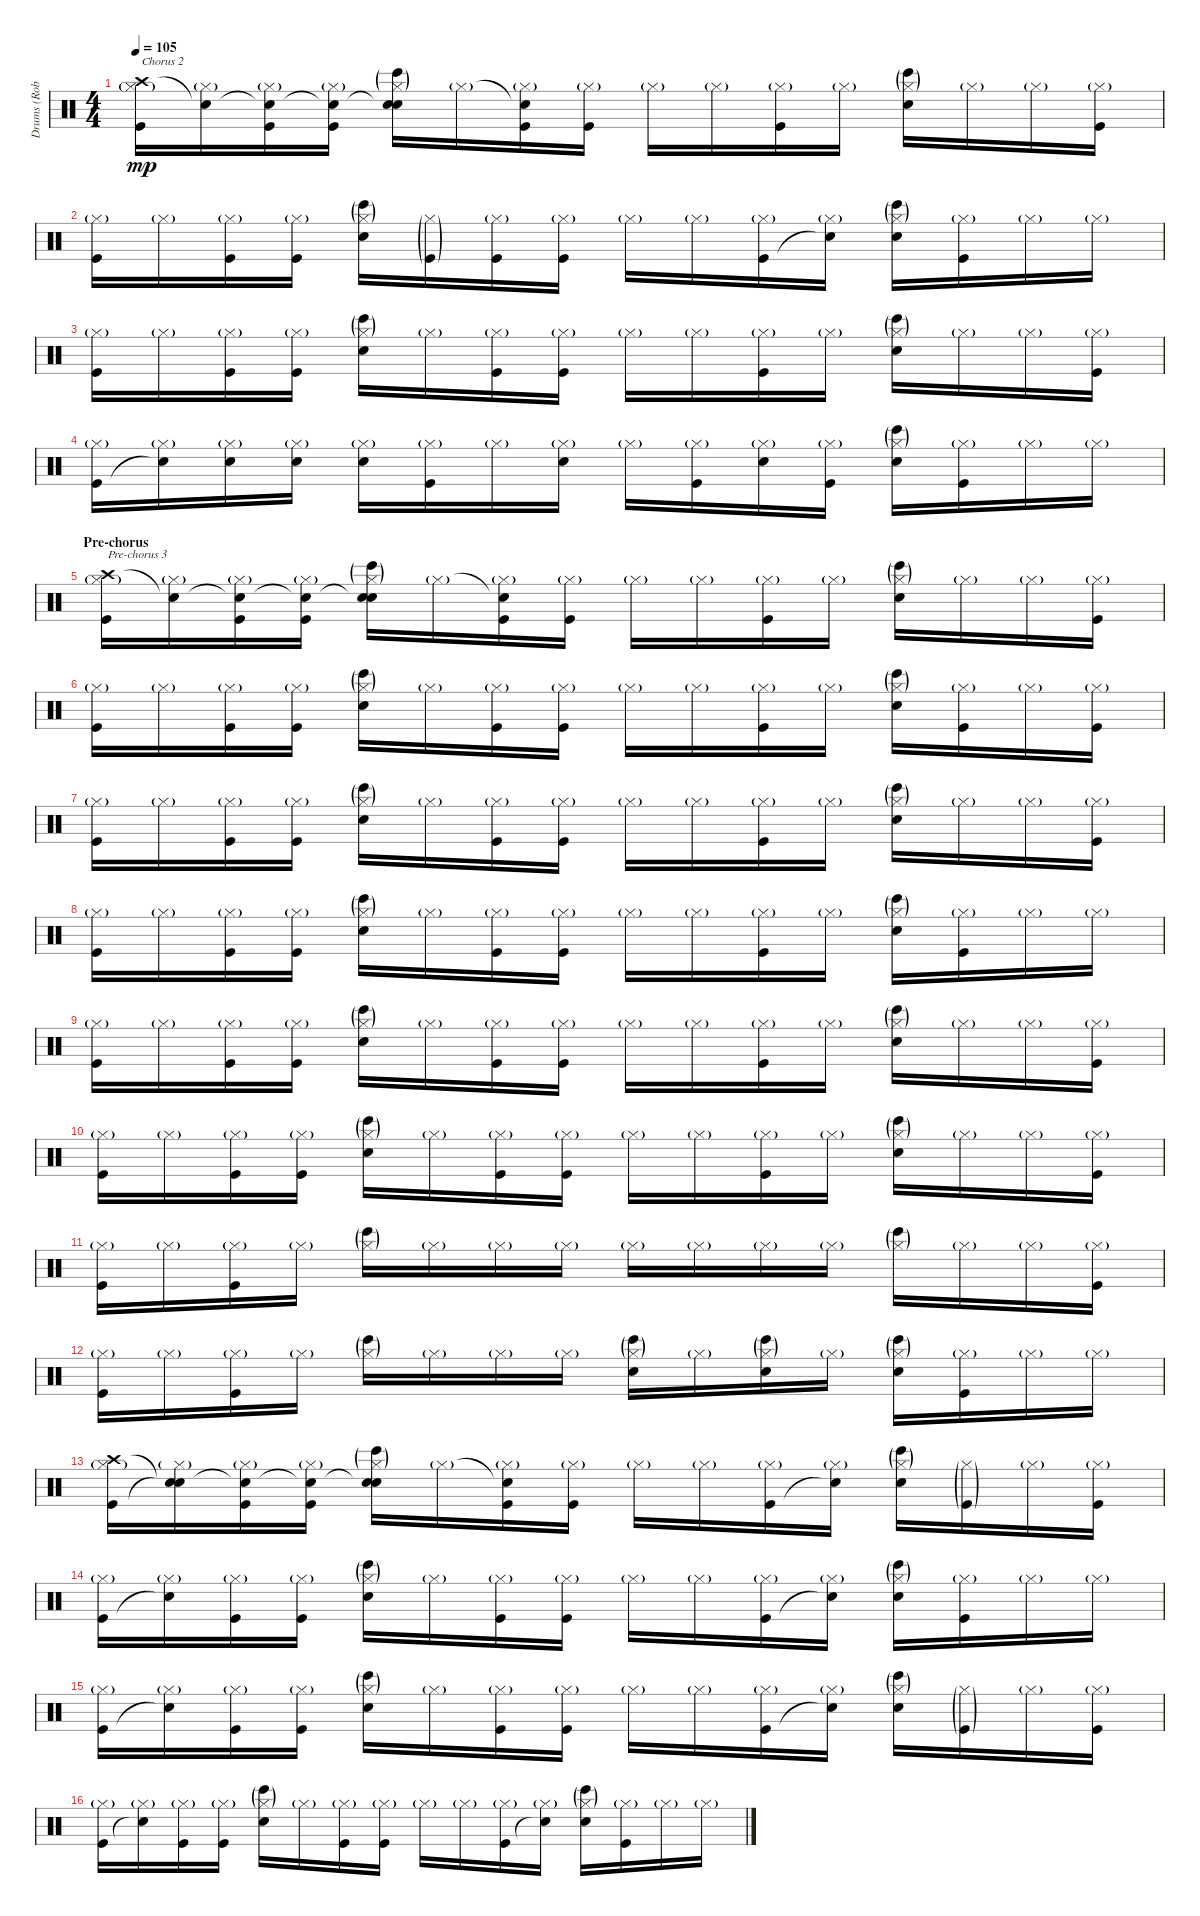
\track ("Drums (Rob Bourdon)" "Drums (Rob") {instrument percussion}
\staff {score}
\articulation defaults
\ts (4 4)
\tempo 105
\clef neutral
\ks c
("Crash high (hit)" "Hi-Hat (closed)"{g} "Kick (hit)").16{txt "Chorus 2" dy mp} ("Snare (hit)"{t} "Hi-Hat (closed)"{g}).16 ("Snare (hit)"{t} "Hi-Hat (closed)"{g} "Kick (hit)").16 ("Snare (hit)"{t} "Hi-Hat (closed)"{g} "Kick (hit)").16 ("Snare (hit)"{t} "Hi-Hat (closed)"{g} "Bongo High (hit)"{g} "Electric Snare (hit)").16 "Hi-Hat (closed)"{g}.16 ("Snare (hit)"{t} "Hi-Hat (closed)"{g} "Kick (hit)").16 ("Hi-Hat (closed)"{g} "Kick (hit)").16 "Hi-Hat (closed)"{g}.16 "Hi-Hat (closed)"{g}.16 ("Hi-Hat (closed)"{g} "Kick (hit)").16 "Hi-Hat (closed)"{g}.16 ("Hi-Hat (closed)"{g} "Bongo High (hit)"{g} "Electric Snare (hit)").16 "Hi-Hat (closed)"{g}.16 "Hi-Hat (closed)"{g}.16 ("Hi-Hat (closed)"{g} "Kick (hit)").16 |
("Hi-Hat (closed)"{g} "Kick (hit)").16 "Hi-Hat (closed)"{g}.16 ("Hi-Hat (closed)"{g} "Kick (hit)").16 ("Hi-Hat (closed)"{g} "Kick (hit)").16 ("Hi-Hat (closed)"{g} "Bongo High (hit)"{g} "Electric Snare (hit)").16 ("Hi-Hat (closed)"{g} "Kick (hit)"{g}).16 ("Hi-Hat (closed)"{g} "Kick (hit)").16 ("Hi-Hat (closed)"{g} "Kick (hit)").16 "Hi-Hat (closed)"{g}.16 "Hi-Hat (closed)"{g}.16 ("Hi-Hat (closed)"{g} "Kick (hit)").16 ("Hi-Hat (closed)"{g} "Snare (hit)"{t}).16 ("Hi-Hat (closed)"{g} "Bongo High (hit)"{g} "Electric Snare (hit)").16 ("Hi-Hat (closed)"{g} "Kick (hit)").16 "Hi-Hat (closed)"{g}.16 "Hi-Hat (closed)"{g}.16 |
("Hi-Hat (closed)"{g} "Kick (hit)").16 "Hi-Hat (closed)"{g}.16 ("Hi-Hat (closed)"{g} "Kick (hit)").16 ("Hi-Hat (closed)"{g} "Kick (hit)").16 ("Hi-Hat (closed)"{g} "Bongo High (hit)"{g} "Electric Snare (hit)").16 "Hi-Hat (closed)"{g}.16 ("Hi-Hat (closed)"{g} "Kick (hit)").16 ("Hi-Hat (closed)"{g} "Kick (hit)").16 "Hi-Hat (closed)"{g}.16 "Hi-Hat (closed)"{g}.16 ("Hi-Hat (closed)"{g} "Kick (hit)").16 "Hi-Hat (closed)"{g}.16 ("Hi-Hat (closed)"{g} "Bongo High (hit)"{g} "Electric Snare (hit)").16 "Hi-Hat (closed)"{g}.16 "Hi-Hat (closed)"{g}.16 ("Hi-Hat (closed)"{g} "Kick (hit)").16 |
("Hi-Hat (closed)"{g} "Kick (hit)").16 ("Hi-Hat (closed)"{g} "Snare (hit)"{t}).16 ("Hi-Hat (closed)"{g} "Electric Snare (hit)").16 ("Hi-Hat (closed)"{g} "Electric Snare (hit)").16 ("Hi-Hat (closed)"{g} "Electric Snare (hit)").16 ("Hi-Hat (closed)"{g} "Kick (hit)").16 "Hi-Hat (closed)"{g}.16 ("Hi-Hat (closed)"{g} "Electric Snare (hit)").16 "Hi-Hat (closed)"{g}.16 ("Hi-Hat (closed)"{g} "Kick (hit)").16 ("Hi-Hat (closed)"{g} "Electric Snare (hit)").16 ("Hi-Hat (closed)"{g} "Kick (hit)").16 ("Hi-Hat (closed)"{g} "Bongo High (hit)"{g} "Electric Snare (hit)").16 ("Hi-Hat (closed)"{g} "Kick (hit)").16 "Hi-Hat (closed)"{g}.16 "Hi-Hat (closed)"{g}.16 |
\section ("" "Pre-chorus")
("Crash high (hit)" "Hi-Hat (closed)"{g} "Kick (hit)").16{txt "Pre-chorus 3"} ("Snare (hit)"{t} "Hi-Hat (closed)"{g}).16 ("Snare (hit)"{t} "Hi-Hat (closed)"{g} "Kick (hit)").16 ("Snare (hit)"{t} "Hi-Hat (closed)"{g} "Kick (hit)").16 ("Snare (hit)"{t} "Hi-Hat (closed)"{g} "Bongo High (hit)"{g} "Electric Snare (hit)").16 "Hi-Hat (closed)"{g}.16 ("Snare (hit)"{t} "Hi-Hat (closed)"{g} "Kick (hit)").16 ("Hi-Hat (closed)"{g} "Kick (hit)").16 "Hi-Hat (closed)"{g}.16 "Hi-Hat (closed)"{g}.16 ("Hi-Hat (closed)"{g} "Kick (hit)").16 "Hi-Hat (closed)"{g}.16 ("Hi-Hat (closed)"{g} "Bongo High (hit)"{g} "Electric Snare (hit)").16 "Hi-Hat (closed)"{g}.16 "Hi-Hat (closed)"{g}.16 ("Hi-Hat (closed)"{g} "Kick (hit)").16 |
("Hi-Hat (closed)"{g} "Kick (hit)").16 "Hi-Hat (closed)"{g}.16 ("Hi-Hat (closed)"{g} "Kick (hit)").16 ("Hi-Hat (closed)"{g} "Kick (hit)").16 ("Hi-Hat (closed)"{g} "Bongo High (hit)"{g} "Electric Snare (hit)").16 "Hi-Hat (closed)"{g}.16 ("Hi-Hat (closed)"{g} "Kick (hit)").16 ("Hi-Hat (closed)"{g} "Kick (hit)").16 "Hi-Hat (closed)"{g}.16 "Hi-Hat (closed)"{g}.16 ("Hi-Hat (closed)"{g} "Kick (hit)").16 "Hi-Hat (closed)"{g}.16 ("Hi-Hat (closed)"{g} "Bongo High (hit)"{g} "Electric Snare (hit)").16 ("Hi-Hat (closed)"{g} "Kick (hit)").16 "Hi-Hat (closed)"{g}.16 ("Hi-Hat (closed)"{g} "Kick (hit)").16 |
("Hi-Hat (closed)"{g} "Kick (hit)").16 "Hi-Hat (closed)"{g}.16 ("Hi-Hat (closed)"{g} "Kick (hit)").16 ("Hi-Hat (closed)"{g} "Kick (hit)").16 ("Hi-Hat (closed)"{g} "Bongo High (hit)"{g} "Electric Snare (hit)").16 "Hi-Hat (closed)"{g}.16 ("Hi-Hat (closed)"{g} "Kick (hit)").16 ("Hi-Hat (closed)"{g} "Kick (hit)").16 "Hi-Hat (closed)"{g}.16 "Hi-Hat (closed)"{g}.16 ("Hi-Hat (closed)"{g} "Kick (hit)").16 "Hi-Hat (closed)"{g}.16 ("Hi-Hat (closed)"{g} "Bongo High (hit)"{g} "Electric Snare (hit)").16 "Hi-Hat (closed)"{g}.16 "Hi-Hat (closed)"{g}.16 ("Hi-Hat (closed)"{g} "Kick (hit)").16 |
("Hi-Hat (closed)"{g} "Kick (hit)").16 "Hi-Hat (closed)"{g}.16 ("Hi-Hat (closed)"{g} "Kick (hit)").16 ("Hi-Hat (closed)"{g} "Kick (hit)").16 ("Hi-Hat (closed)"{g} "Bongo High (hit)"{g} "Electric Snare (hit)").16 "Hi-Hat (closed)"{g}.16 ("Hi-Hat (closed)"{g} "Kick (hit)").16 ("Hi-Hat (closed)"{g} "Kick (hit)").16 "Hi-Hat (closed)"{g}.16 "Hi-Hat (closed)"{g}.16 ("Hi-Hat (closed)"{g} "Kick (hit)").16 "Hi-Hat (closed)"{g}.16 ("Hi-Hat (closed)"{g} "Bongo High (hit)"{g} "Electric Snare (hit)").16 ("Hi-Hat (closed)"{g} "Kick (hit)").16 "Hi-Hat (closed)"{g}.16 "Hi-Hat (closed)"{g}.16 |
("Hi-Hat (closed)"{g} "Kick (hit)").16 "Hi-Hat (closed)"{g}.16 ("Hi-Hat (closed)"{g} "Kick (hit)").16 ("Hi-Hat (closed)"{g} "Kick (hit)").16 ("Hi-Hat (closed)"{g} "Bongo High (hit)"{g} "Electric Snare (hit)").16 "Hi-Hat (closed)"{g}.16 ("Hi-Hat (closed)"{g} "Kick (hit)").16 ("Hi-Hat (closed)"{g} "Kick (hit)").16 "Hi-Hat (closed)"{g}.16 "Hi-Hat (closed)"{g}.16 ("Hi-Hat (closed)"{g} "Kick (hit)").16 "Hi-Hat (closed)"{g}.16 ("Hi-Hat (closed)"{g} "Bongo High (hit)"{g} "Electric Snare (hit)").16 "Hi-Hat (closed)"{g}.16 "Hi-Hat (closed)"{g}.16 ("Hi-Hat (closed)"{g} "Kick (hit)").16 |
("Hi-Hat (closed)"{g} "Kick (hit)").16 "Hi-Hat (closed)"{g}.16 ("Hi-Hat (closed)"{g} "Kick (hit)").16 ("Hi-Hat (closed)"{g} "Kick (hit)").16 ("Hi-Hat (closed)"{g} "Bongo High (hit)"{g} "Electric Snare (hit)").16 "Hi-Hat (closed)"{g}.16 ("Hi-Hat (closed)"{g} "Kick (hit)").16 ("Hi-Hat (closed)"{g} "Kick (hit)").16 "Hi-Hat (closed)"{g}.16 "Hi-Hat (closed)"{g}.16 ("Hi-Hat (closed)"{g} "Kick (hit)").16 "Hi-Hat (closed)"{g}.16 ("Hi-Hat (closed)"{g} "Bongo High (hit)"{g} "Electric Snare (hit)").16 "Hi-Hat (closed)"{g}.16 "Hi-Hat (closed)"{g}.16 ("Hi-Hat (closed)"{g} "Kick (hit)").16 |
("Hi-Hat (closed)"{g} "Kick (hit)").16 "Hi-Hat (closed)"{g}.16 ("Hi-Hat (closed)"{g} "Kick (hit)").16 "Hi-Hat (closed)"{g}.16 ("Hi-Hat (closed)"{g} "Bongo High (hit)"{g}).16 "Hi-Hat (closed)"{g}.16 "Hi-Hat (closed)"{g}.16 "Hi-Hat (closed)"{g}.16 "Hi-Hat (closed)"{g}.16 "Hi-Hat (closed)"{g}.16 "Hi-Hat (closed)"{g}.16 "Hi-Hat (closed)"{g}.16 ("Hi-Hat (closed)"{g} "Bongo High (hit)"{g}).16 "Hi-Hat (closed)"{g}.16 "Hi-Hat (closed)"{g}.16 ("Hi-Hat (closed)"{g} "Kick (hit)").16 |
("Hi-Hat (closed)"{g} "Kick (hit)").16 "Hi-Hat (closed)"{g}.16 ("Hi-Hat (closed)"{g} "Kick (hit)").16 "Hi-Hat (closed)"{g}.16 ("Hi-Hat (closed)"{g} "Bongo High (hit)"{g}).16 "Hi-Hat (closed)"{g}.16 "Hi-Hat (closed)"{g}.16 "Hi-Hat (closed)"{g}.16 ("Hi-Hat (closed)"{g} "Bongo High (hit)"{g} "Electric Snare (hit)").16 "Hi-Hat (closed)"{g}.16 ("Hi-Hat (closed)"{g} "Bongo High (hit)"{g} "Electric Snare (hit)").16 "Hi-Hat (closed)"{g}.16 ("Hi-Hat (closed)"{g} "Bongo High (hit)"{g} "Electric Snare (hit)").16 ("Hi-Hat (closed)"{g} "Kick (hit)").16 "Hi-Hat (closed)"{g}.16 "Hi-Hat (closed)"{g}.16 |
("Crash high (hit)" "Hi-Hat (closed)"{g} "Kick (hit)").16 ("Snare (hit)"{t} "Hi-Hat (closed)"{g} "Snare (hit)"{t}).16 ("Snare (hit)"{t} "Hi-Hat (closed)"{g} "Kick (hit)").16 ("Snare (hit)"{t} "Hi-Hat (closed)"{g} "Kick (hit)").16 ("Snare (hit)"{t} "Hi-Hat (closed)"{g} "Bongo High (hit)"{g} "Electric Snare (hit)").16 "Hi-Hat (closed)"{g}.16 ("Snare (hit)"{t} "Hi-Hat (closed)"{g} "Kick (hit)").16 ("Hi-Hat (closed)"{g} "Kick (hit)").16 "Hi-Hat (closed)"{g}.16 "Hi-Hat (closed)"{g}.16 ("Hi-Hat (closed)"{g} "Kick (hit)").16 ("Hi-Hat (closed)"{g} "Snare (hit)"{t}).16 ("Hi-Hat (closed)"{g} "Bongo High (hit)"{g} "Electric Snare (hit)").16 ("Hi-Hat (closed)"{g} "Kick (hit)"{g}).16 "Hi-Hat (closed)"{g}.16 ("Hi-Hat (closed)"{g} "Kick (hit)").16 |
("Hi-Hat (closed)"{g} "Kick (hit)").16 ("Hi-Hat (closed)"{g} "Snare (hit)"{t}).16 ("Hi-Hat (closed)"{g} "Kick (hit)").16 ("Hi-Hat (closed)"{g} "Kick (hit)").16 ("Hi-Hat (closed)"{g} "Bongo High (hit)"{g} "Electric Snare (hit)").16 "Hi-Hat (closed)"{g}.16 ("Hi-Hat (closed)"{g} "Kick (hit)").16 ("Hi-Hat (closed)"{g} "Kick (hit)").16 "Hi-Hat (closed)"{g}.16 "Hi-Hat (closed)"{g}.16 ("Hi-Hat (closed)"{g} "Kick (hit)").16 ("Hi-Hat (closed)"{g} "Snare (hit)"{t}).16 ("Hi-Hat (closed)"{g} "Bongo High (hit)"{g} "Electric Snare (hit)").16 ("Hi-Hat (closed)"{g} "Kick (hit)").16 "Hi-Hat (closed)"{g}.16 "Hi-Hat (closed)"{g}.16 |
("Hi-Hat (closed)"{g} "Kick (hit)").16 ("Hi-Hat (closed)"{g} "Snare (hit)"{t}).16 ("Hi-Hat (closed)"{g} "Kick (hit)").16 ("Hi-Hat (closed)"{g} "Kick (hit)").16 ("Hi-Hat (closed)"{g} "Bongo High (hit)"{g} "Electric Snare (hit)").16 "Hi-Hat (closed)"{g}.16 ("Hi-Hat (closed)"{g} "Kick (hit)").16 ("Hi-Hat (closed)"{g} "Kick (hit)").16 "Hi-Hat (closed)"{g}.16 "Hi-Hat (closed)"{g}.16 ("Hi-Hat (closed)"{g} "Kick (hit)").16 ("Hi-Hat (closed)"{g} "Snare (hit)"{t}).16 ("Hi-Hat (closed)"{g} "Bongo High (hit)"{g} "Electric Snare (hit)").16 ("Hi-Hat (closed)"{g} "Kick (hit)"{g}).16 "Hi-Hat (closed)"{g}.16 ("Hi-Hat (closed)"{g} "Kick (hit)").16 |
("Hi-Hat (closed)"{g} "Kick (hit)").16 ("Hi-Hat (closed)"{g} "Snare (hit)"{t}).16 ("Hi-Hat (closed)"{g} "Kick (hit)").16 ("Hi-Hat (closed)"{g} "Kick (hit)").16 ("Hi-Hat (closed)"{g} "Bongo High (hit)"{g} "Electric Snare (hit)").16 "Hi-Hat (closed)"{g}.16 ("Hi-Hat (closed)"{g} "Kick (hit)").16 ("Hi-Hat (closed)"{g} "Kick (hit)").16 "Hi-Hat (closed)"{g}.16 "Hi-Hat (closed)"{g}.16 ("Hi-Hat (closed)"{g} "Kick (hit)").16 ("Hi-Hat (closed)"{g} "Snare (hit)"{t}).16 ("Hi-Hat (closed)"{g} "Bongo High (hit)"{g} "Electric Snare (hit)").16 ("Hi-Hat (closed)"{g} "Kick (hit)").16 "Hi-Hat (closed)"{g}.16 "Hi-Hat (closed)"{g}.16
